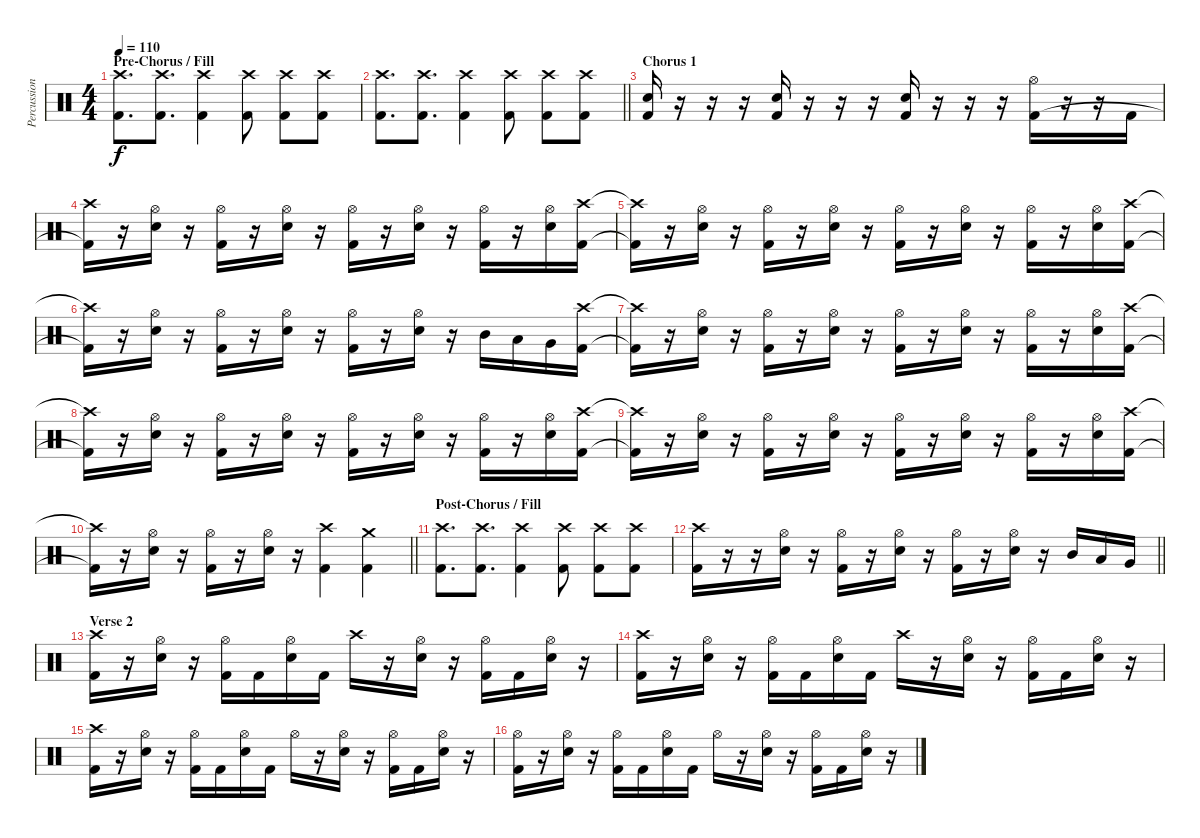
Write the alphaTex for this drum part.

\track ("Percussion" "Percussion") {instrument percussion}
\staff {score}
\articulation defaults
\ts (4 4)
\section ("" "Pre-Chorus / Fill")
\tempo 110
\clef neutral
\ks c
("Crash high (hit)" "Kick (hit) 2").8{d dy f} ("Crash high (hit)" "Kick (hit) 2").8{d} ("Crash high (hit)" "Kick (hit) 2").4 ("Crash high (hit)" "Kick (hit) 2").8 ("Crash high (hit)" "Kick (hit) 2").8 ("Crash high (hit)" "Kick (hit) 2").8 |
\barLineRight lightlight
("Crash high (hit)" "Kick (hit) 2").8{d} ("Crash high (hit)" "Kick (hit) 2").8{d} ("Crash high (hit)" "Kick (hit) 2").4 ("Crash high (hit)" "Kick (hit) 2").8 ("Crash high (hit)" "Kick (hit) 2").8 ("Crash high (hit)" "Kick (hit) 2").8 |
\section ("" "Chorus 1")
("Snare (hit) 2" "Kick (hit) 2").16 r.16 r.16 r.16 ("Snare (hit) 2" "Kick (hit) 2").16 r.16 r.16 r.16 ("Snare (hit) 2" "Kick (hit) 2").16 r.16 r.16 r.16 ("Hi-Hat (open)" "Kick (hit) 2").16 r.16 r.16 "Kick (hit) 2".16 |
("Crash high (hit)" "Kick (hit) 2"{t}).16 r.16 ("Hi-Hat (open)" "Snare (hit) 2").16 r.16 ("Hi-Hat (open)" "Kick (hit) 2").16 r.16 ("Hi-Hat (open)" "Snare (hit) 2").16 r.16 ("Hi-Hat (open)" "Kick (hit) 2").16 r.16 ("Hi-Hat (open)" "Snare (hit) 2").16 r.16 ("Hi-Hat (open)" "Kick (hit) 2").16 r.16 ("Hi-Hat (open)" "Snare (hit) 2").16 ("Crash high (hit)" "Kick (hit) 2").16 |
("Crash high (hit)"{t} "Kick (hit) 2"{t}).16 r.16 ("Hi-Hat (open)" "Snare (hit) 2").16 r.16 ("Hi-Hat (open)" "Kick (hit) 2").16 r.16 ("Hi-Hat (open)" "Snare (hit) 2").16 r.16 ("Hi-Hat (open)" "Kick (hit) 2").16 r.16 ("Hi-Hat (open)" "Snare (hit) 2").16 r.16 ("Hi-Hat (open)" "Kick (hit) 2").16 r.16 ("Hi-Hat (open)" "Snare (hit) 2").16 ("Crash high (hit)" "Kick (hit) 2").16 |
("Crash high (hit)"{t} "Kick (hit) 2"{t}).16 r.16 ("Hi-Hat (open)" "Snare (hit) 2").16 r.16 ("Hi-Hat (open)" "Kick (hit) 2").16 r.16 ("Hi-Hat (open)" "Snare (hit) 2").16 r.16 ("Hi-Hat (open)" "Kick (hit) 2").16 r.16 ("Hi-Hat (open)" "Snare (hit) 2").16 r.16 "Mid Tom (hit)".16 "Low Tom (hit)".16 "Very Low Tom (hit)".16 ("Crash high (hit)" "Kick (hit) 2").16 |
("Crash high (hit)"{t} "Kick (hit) 2"{t}).16 r.16 ("Hi-Hat (open)" "Snare (hit) 2").16 r.16 ("Hi-Hat (open)" "Kick (hit) 2").16 r.16 ("Hi-Hat (open)" "Snare (hit) 2").16 r.16 ("Hi-Hat (open)" "Kick (hit) 2").16 r.16 ("Hi-Hat (open)" "Snare (hit) 2").16 r.16 ("Hi-Hat (open)" "Kick (hit) 2").16 r.16 ("Hi-Hat (open)" "Snare (hit) 2").16 ("Crash high (hit)" "Kick (hit) 2").16 |
("Crash high (hit)"{t} "Kick (hit) 2"{t}).16 r.16 ("Hi-Hat (open)" "Snare (hit) 2").16 r.16 ("Hi-Hat (open)" "Kick (hit) 2").16 r.16 ("Hi-Hat (open)" "Snare (hit) 2").16 r.16 ("Hi-Hat (open)" "Kick (hit) 2").16 r.16 ("Hi-Hat (open)" "Snare (hit) 2").16 r.16 ("Hi-Hat (open)" "Kick (hit) 2").16 r.16 ("Hi-Hat (open)" "Snare (hit) 2").16 ("Crash high (hit)" "Kick (hit) 2").16 |
("Crash high (hit)"{t} "Kick (hit) 2"{t}).16 r.16 ("Hi-Hat (open)" "Snare (hit) 2").16 r.16 ("Hi-Hat (open)" "Kick (hit) 2").16 r.16 ("Hi-Hat (open)" "Snare (hit) 2").16 r.16 ("Hi-Hat (open)" "Kick (hit) 2").16 r.16 ("Hi-Hat (open)" "Snare (hit) 2").16 r.16 ("Hi-Hat (open)" "Kick (hit) 2").16 r.16 ("Hi-Hat (open)" "Snare (hit) 2").16 ("Crash high (hit)" "Kick (hit) 2").16 |
\barLineRight lightlight
("Crash high (hit)"{t} "Kick (hit) 2"{t}).16 r.16 ("Hi-Hat (open)" "Snare (hit) 2").16 r.16 ("Hi-Hat (open)" "Kick (hit) 2").16 r.16 ("Hi-Hat (open)" "Snare (hit) 2").16 r.16 ("Crash high (hit)" "Kick (hit) 2").4 ("Crash medium (hit)" "Kick (hit) 2").4 |
\section ("" "Post-Chorus / Fill")
("Crash high (hit)" "Kick (hit) 2").8{d} ("Crash high (hit)" "Kick (hit) 2").8{d} ("Crash high (hit)" "Kick (hit) 2").4 ("Crash high (hit)" "Kick (hit) 2").8 ("Crash high (hit)" "Kick (hit) 2").8 ("Crash high (hit)" "Kick (hit) 2").8 |
\barLineRight lightlight
("Crash high (hit)" "Kick (hit) 2").16 r.16 r.16 ("Hi-Hat (open)" "Snare (hit) 2").16 r.16 ("Hi-Hat (open)" "Kick (hit) 2").16 r.16 ("Hi-Hat (open)" "Snare (hit) 2").16 r.16 ("Hi-Hat (open)" "Kick (hit) 2").16 r.16 ("Hi-Hat (open)" "Snare (hit) 2").16 r.16 "Mid Tom (hit)".16 "Low Tom (hit)".16 "Very Low Tom (hit)".16 |
\section ("" "Verse 2")
("Crash high (hit)" "Kick (hit) 2").16 r.16 ("Hi-Hat (open)" "Snare (hit) 2").16 r.16 ("Hi-Hat (open)" "Kick (hit) 2").16 "Kick (hit) 2".16 ("Hi-Hat (open)" "Snare (hit) 2").16 "Kick (hit) 2".16 "Crash high (hit)".16 r.16 ("Hi-Hat (open)" "Snare (hit) 2").16 r.16 ("Hi-Hat (open)" "Kick (hit) 2").16 "Kick (hit) 2".16 ("Hi-Hat (open)" "Snare (hit) 2").16 r.16 |
("Crash high (hit)" "Kick (hit) 2").16 r.16 ("Hi-Hat (open)" "Snare (hit) 2").16 r.16 ("Hi-Hat (open)" "Kick (hit) 2").16 "Kick (hit) 2".16 ("Hi-Hat (open)" "Snare (hit) 2").16 "Kick (hit) 2".16 "Crash high (hit)".16 r.16 ("Hi-Hat (open)" "Snare (hit) 2").16 r.16 ("Hi-Hat (open)" "Kick (hit) 2").16 "Kick (hit) 2".16 ("Hi-Hat (open)" "Snare (hit) 2").16 r.16 |
("Crash high (hit)" "Kick (hit) 2").16 r.16 ("Hi-Hat (open)" "Snare (hit) 2").16 r.16 ("Hi-Hat (open)" "Kick (hit) 2").16 "Kick (hit) 2".16 ("Hi-Hat (open)" "Snare (hit) 2").16 "Kick (hit) 2".16 "Hi-Hat (open)".16 r.16 ("Hi-Hat (open)" "Snare (hit) 2").16 r.16 ("Hi-Hat (open)" "Kick (hit) 2").16 "Kick (hit) 2".16 ("Hi-Hat (open)" "Snare (hit) 2").16 r.16 |
("Hi-Hat (open)" "Kick (hit) 2").16 r.16 ("Hi-Hat (open)" "Snare (hit) 2").16 r.16 ("Hi-Hat (open)" "Kick (hit) 2").16 "Kick (hit) 2".16 ("Hi-Hat (open)" "Snare (hit) 2").16 "Kick (hit) 2".16 "Hi-Hat (open)".16 r.16 ("Hi-Hat (open)" "Snare (hit) 2").16 r.16 ("Hi-Hat (open)" "Kick (hit) 2").16 "Kick (hit) 2".16 ("Hi-Hat (open)" "Snare (hit) 2").16 r.16
